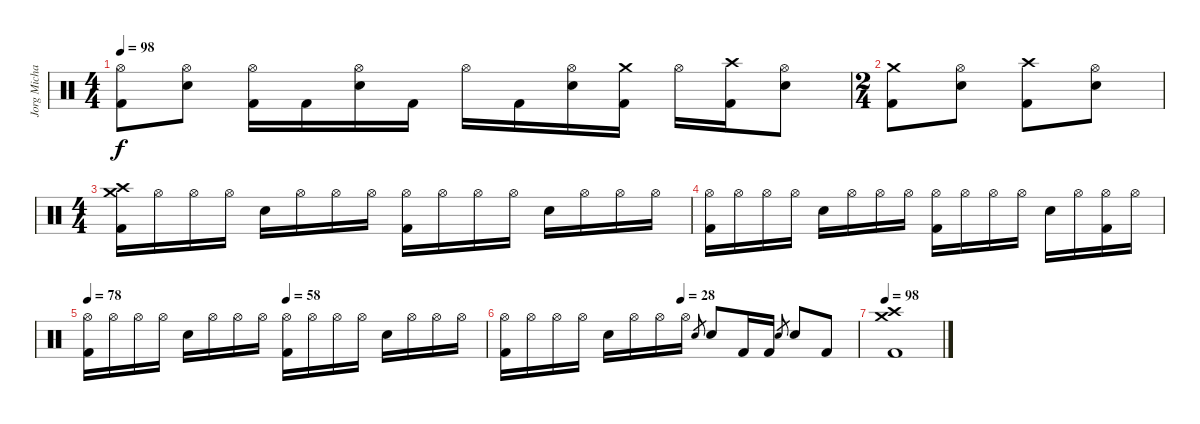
\track ("Jorg Michael" "Jorg Micha") {instrument percussion}
\staff {score}
\articulation defaults
\ts (4 4)
\tempo 98
\clef neutral
\ks c
("Hi-Hat (open)" "Kick (hit) 2").8{dy f} ("Hi-Hat (open)" "Electric Snare (hit)").8 ("Hi-Hat (open)" "Kick (hit) 2").16 "Kick (hit) 2".16 ("Hi-Hat (open)" "Electric Snare (hit)").16 "Kick (hit) 2".16 "Hi-Hat (open)".16 "Kick (hit) 2".16 ("Hi-Hat (open)" "Electric Snare (hit)").16 ("Crash medium (hit)" "Kick (hit) 2").16 "Hi-Hat (open)".16 ("Crash high (hit)" "Kick (hit) 2").16 ("Hi-Hat (open)" "Electric Snare (hit)").8 |
\ts (2 4)
("Crash medium (hit)" "Kick (hit) 2").8 ("Hi-Hat (open)" "Electric Snare (hit)").8 ("Crash high (hit)" "Kick (hit) 2").8 ("Hi-Hat (open)" "Electric Snare (hit)").8 |
\ts (4 4)
("Crash medium (hit)" "Crash high (hit)" "Kick (hit) 2").16 "Hi-Hat (open)".16 "Hi-Hat (open)".16 "Hi-Hat (open)".16 "Electric Snare (hit)".16 "Hi-Hat (open)".16 "Hi-Hat (open)".16 "Hi-Hat (open)".16 ("Hi-Hat (open)" "Kick (hit) 2").16 "Hi-Hat (open)".16 "Hi-Hat (open)".16 "Hi-Hat (open)".16 "Electric Snare (hit)".16 "Hi-Hat (open)".16 "Hi-Hat (open)".16 "Hi-Hat (open)".16 |
("Hi-Hat (open)" "Kick (hit) 2").16 "Hi-Hat (open)".16 "Hi-Hat (open)".16 "Hi-Hat (open)".16 "Electric Snare (hit)".16 "Hi-Hat (open)".16 "Hi-Hat (open)".16 "Hi-Hat (open)".16 ("Hi-Hat (open)" "Kick (hit) 2").16 "Hi-Hat (open)".16 "Hi-Hat (open)".16 "Hi-Hat (open)".16 "Electric Snare (hit)".16 "Hi-Hat (open)".16 ("Hi-Hat (open)" "Kick (hit) 2").16 "Hi-Hat (open)".16 |
\tempo 78
\tempo (58 0.5)
("Hi-Hat (open)" "Kick (hit) 2").16 "Hi-Hat (open)".16 "Hi-Hat (open)".16 "Hi-Hat (open)".16 "Electric Snare (hit)".16 "Hi-Hat (open)".16 "Hi-Hat (open)".16 "Hi-Hat (open)".16 ("Hi-Hat (open)" "Kick (hit) 2").16 "Hi-Hat (open)".16 "Hi-Hat (open)".16 "Hi-Hat (open)".16 "Electric Snare (hit)".16 "Hi-Hat (open)".16 "Hi-Hat (open)".16 "Hi-Hat (open)".16 |
\tempo (28 0.5)
("Hi-Hat (open)" "Kick (hit) 2").16 "Hi-Hat (open)".16 "Hi-Hat (open)".16 "Hi-Hat (open)".16 "Electric Snare (hit)".16 "Hi-Hat (open)".16 "Hi-Hat (open)".16 "Hi-Hat (open)".16 "Electric Snare (hit)".8{gr} "Electric Snare (hit)".8 "Kick (hit) 2".16 "Kick (hit) 2".16 "Electric Snare (hit)".8{gr} "Electric Snare (hit)".8 "Kick (hit) 2".8 |
\tempo 98
("Crash medium (hit)" "Crash high (hit)" "Kick (hit) 2").1
